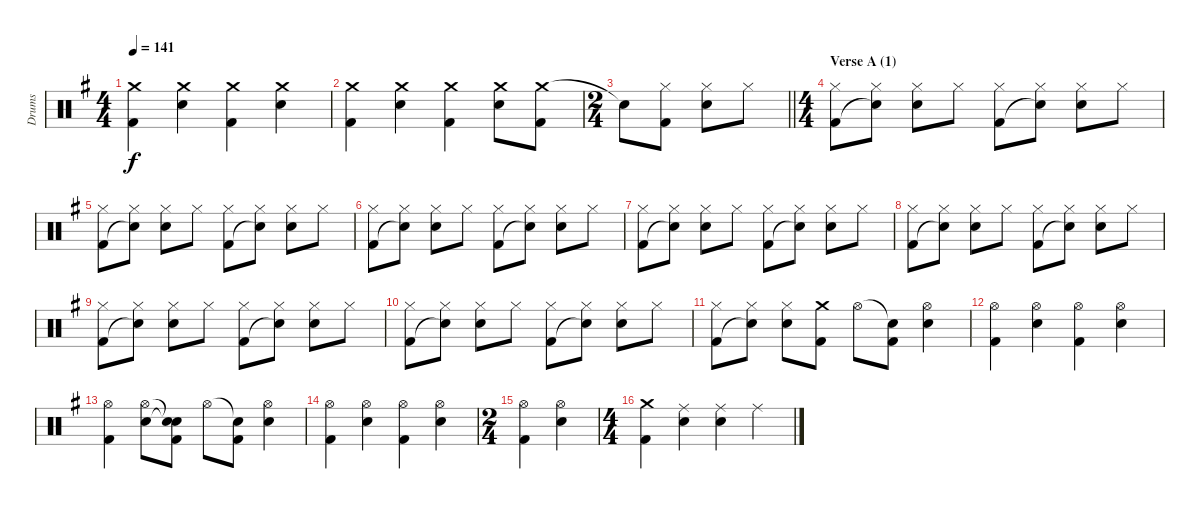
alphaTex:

\track ("Drums" "Drums") {instrument percussion}
\staff {score}
\articulation defaults
\ts (4 4)
\tempo 141
\clef neutral
\ks g
("Crash medium (hit)" "Kick (hit) 2").4{dy f} ("Crash medium (hit)" "Electric Snare (hit)").4 ("Crash medium (hit)" "Kick (hit) 2").4 ("Crash medium (hit)" "Electric Snare (hit)").4 |
("Crash medium (hit)" "Kick (hit) 2").4 ("Crash medium (hit)" "Electric Snare (hit)").4 ("Crash medium (hit)" "Kick (hit) 2").4 ("Crash medium (hit)" "Electric Snare (hit)").8 ("Crash medium (hit)" "Kick (hit) 2").8 |
\ts (2 4)
\barLineRight lightlight "Snare (hit)"{t}.8
("Hi-Hat (closed)" "Kick (hit) 2").8 ("Hi-Hat (closed)" "Electric Snare (hit)").8 "Hi-Hat (closed)".8 |
\ts (4 4)
\section ("" "Verse A (1)")
("Hi-Hat (closed)" "Kick (hit) 2").8 ("Hi-Hat (closed)" "Snare (hit)"{t}).8 ("Hi-Hat (closed)" "Electric Snare (hit)").8 "Hi-Hat (closed)".8 ("Hi-Hat (closed)" "Kick (hit) 2").8 ("Hi-Hat (closed)" "Snare (hit)"{t}).8 ("Hi-Hat (closed)" "Electric Snare (hit)").8 "Hi-Hat (closed)".8 |
("Hi-Hat (closed)" "Kick (hit) 2").8 ("Hi-Hat (closed)" "Snare (hit)"{t}).8 ("Hi-Hat (closed)" "Electric Snare (hit)").8 "Hi-Hat (closed)".8 ("Hi-Hat (closed)" "Kick (hit) 2").8 ("Hi-Hat (closed)" "Snare (hit)"{t}).8 ("Hi-Hat (closed)" "Electric Snare (hit)").8 "Hi-Hat (closed)".8 |
("Hi-Hat (closed)" "Kick (hit) 2").8 ("Hi-Hat (closed)" "Snare (hit)"{t}).8 ("Hi-Hat (closed)" "Electric Snare (hit)").8 "Hi-Hat (closed)".8 ("Hi-Hat (closed)" "Kick (hit) 2").8 ("Hi-Hat (closed)" "Snare (hit)"{t}).8 ("Hi-Hat (closed)" "Electric Snare (hit)").8 "Hi-Hat (closed)".8 |
("Hi-Hat (closed)" "Kick (hit) 2").8 ("Hi-Hat (closed)" "Snare (hit)"{t}).8 ("Hi-Hat (closed)" "Electric Snare (hit)").8 "Hi-Hat (closed)".8 ("Hi-Hat (closed)" "Kick (hit) 2").8 ("Hi-Hat (closed)" "Snare (hit)"{t}).8 ("Hi-Hat (closed)" "Electric Snare (hit)").8 "Hi-Hat (closed)".8 |
("Hi-Hat (closed)" "Kick (hit) 2").8 ("Hi-Hat (closed)" "Snare (hit)"{t}).8 ("Hi-Hat (closed)" "Electric Snare (hit)").8 "Hi-Hat (closed)".8 ("Hi-Hat (closed)" "Kick (hit) 2").8 ("Hi-Hat (closed)" "Snare (hit)"{t}).8 ("Hi-Hat (closed)" "Electric Snare (hit)").8 "Hi-Hat (closed)".8 |
("Hi-Hat (closed)" "Kick (hit) 2").8 ("Hi-Hat (closed)" "Snare (hit)"{t}).8 ("Hi-Hat (closed)" "Electric Snare (hit)").8 "Hi-Hat (closed)".8 ("Hi-Hat (closed)" "Kick (hit) 2").8 ("Hi-Hat (closed)" "Snare (hit)"{t}).8 ("Hi-Hat (closed)" "Electric Snare (hit)").8 "Hi-Hat (closed)".8 |
("Hi-Hat (closed)" "Kick (hit) 2").8 ("Hi-Hat (closed)" "Snare (hit)"{t}).8 ("Hi-Hat (closed)" "Electric Snare (hit)").8 "Hi-Hat (closed)".8 ("Hi-Hat (closed)" "Kick (hit) 2").8 ("Hi-Hat (closed)" "Snare (hit)"{t}).8 ("Hi-Hat (closed)" "Electric Snare (hit)").8 "Hi-Hat (closed)".8 |
("Hi-Hat (closed)" "Kick (hit) 2").8 ("Hi-Hat (closed)" "Snare (hit)"{t}).8 ("Hi-Hat (closed)" "Electric Snare (hit)").8 ("Crash medium (hit)" "Kick (hit) 2").8 "Hi-Hat (open)".8 ("Snare (hit)"{t} "Kick (hit) 2").8 ("Hi-Hat (open)" "Electric Snare (hit)").4 |
("Hi-Hat (open)" "Kick (hit) 2").4 ("Hi-Hat (open)" "Electric Snare (hit)").4 ("Hi-Hat (open)" "Kick (hit) 2").4 ("Hi-Hat (open)" "Electric Snare (hit)").4 |
("Hi-Hat (open)" "Kick (hit) 2").4 ("Hi-Hat (open)" "Electric Snare (hit)").8 ("Snare (hit)"{t} "Snare (hit)"{t} "Kick (hit) 2").8 "Hi-Hat (open)".8 ("Snare (hit)"{t} "Kick (hit) 2").8 ("Hi-Hat (open)" "Electric Snare (hit)").4 |
("Hi-Hat (open)" "Kick (hit) 2").4 ("Hi-Hat (open)" "Electric Snare (hit)").4 ("Hi-Hat (open)" "Kick (hit) 2").4 ("Hi-Hat (open)" "Electric Snare (hit)").4 |
\ts (2 4)
("Hi-Hat (open)" "Kick (hit) 2").4 ("Hi-Hat (open)" "Electric Snare (hit)").4 |
\ts (4 4)
("Crash medium (hit)" "Kick (hit) 2").4 ("Ride (middle)" "Electric Snare (hit)").4 ("Ride (middle)" "Electric Snare (hit)").4 "Ride (middle)".4
